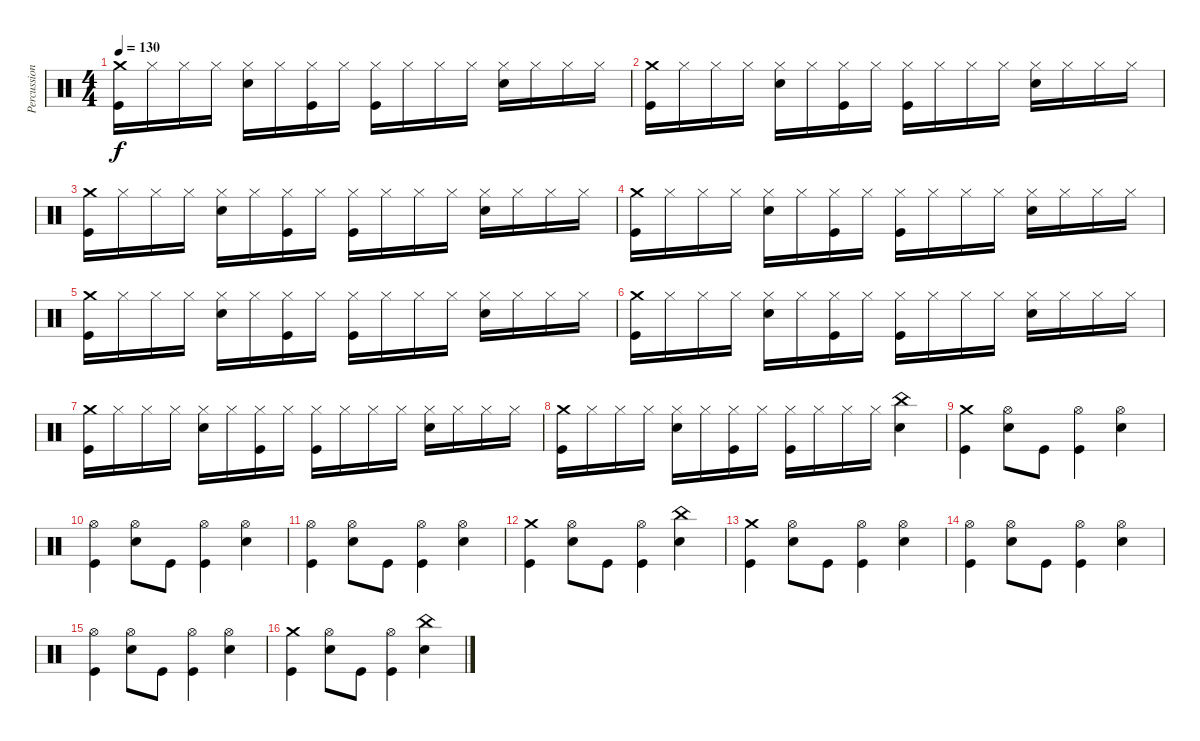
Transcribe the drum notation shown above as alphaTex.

\track ("Percussion" "Percussion") {instrument percussion}
\staff {score}
\articulation defaults
\ts (4 4)
\tempo 130
\clef neutral
\ks c
("Crash medium (hit)" "Kick (hit)").16{dy f} "Hi-Hat (closed)".16 "Hi-Hat (closed)".16 "Hi-Hat (closed)".16 ("Hi-Hat (closed)" "Snare (hit) 2").16 "Hi-Hat (closed)".16 ("Hi-Hat (closed)" "Kick (hit)").16 "Hi-Hat (closed)".16 ("Hi-Hat (closed)" "Kick (hit)").16 "Hi-Hat (closed)".16 "Hi-Hat (closed)".16 "Hi-Hat (closed)".16 ("Hi-Hat (closed)" "Snare (hit) 2").16 "Hi-Hat (closed)".16 "Hi-Hat (closed)".16 "Hi-Hat (closed)".16 |
("Crash medium (hit)" "Kick (hit)").16 "Hi-Hat (closed)".16 "Hi-Hat (closed)".16 "Hi-Hat (closed)".16 ("Hi-Hat (closed)" "Snare (hit) 2").16 "Hi-Hat (closed)".16 ("Hi-Hat (closed)" "Kick (hit)").16 "Hi-Hat (closed)".16 ("Hi-Hat (closed)" "Kick (hit)").16 "Hi-Hat (closed)".16 "Hi-Hat (closed)".16 "Hi-Hat (closed)".16 ("Hi-Hat (closed)" "Snare (hit) 2").16 "Hi-Hat (closed)".16 "Hi-Hat (closed)".16 "Hi-Hat (closed)".16 |
("Crash medium (hit)" "Kick (hit)").16 "Hi-Hat (closed)".16 "Hi-Hat (closed)".16 "Hi-Hat (closed)".16 ("Hi-Hat (closed)" "Snare (hit) 2").16 "Hi-Hat (closed)".16 ("Hi-Hat (closed)" "Kick (hit)").16 "Hi-Hat (closed)".16 ("Hi-Hat (closed)" "Kick (hit)").16 "Hi-Hat (closed)".16 "Hi-Hat (closed)".16 "Hi-Hat (closed)".16 ("Hi-Hat (closed)" "Snare (hit) 2").16 "Hi-Hat (closed)".16 "Hi-Hat (closed)".16 "Hi-Hat (closed)".16 |
("Crash medium (hit)" "Kick (hit)").16 "Hi-Hat (closed)".16 "Hi-Hat (closed)".16 "Hi-Hat (closed)".16 ("Hi-Hat (closed)" "Snare (hit) 2").16 "Hi-Hat (closed)".16 ("Hi-Hat (closed)" "Kick (hit)").16 "Hi-Hat (closed)".16 ("Hi-Hat (closed)" "Kick (hit)").16 "Hi-Hat (closed)".16 "Hi-Hat (closed)".16 "Hi-Hat (closed)".16 ("Hi-Hat (closed)" "Snare (hit) 2").16 "Hi-Hat (closed)".16 "Hi-Hat (closed)".16 "Hi-Hat (closed)".16 |
("Crash medium (hit)" "Kick (hit)").16 "Hi-Hat (closed)".16 "Hi-Hat (closed)".16 "Hi-Hat (closed)".16 ("Hi-Hat (closed)" "Snare (hit) 2").16 "Hi-Hat (closed)".16 ("Hi-Hat (closed)" "Kick (hit)").16 "Hi-Hat (closed)".16 ("Hi-Hat (closed)" "Kick (hit)").16 "Hi-Hat (closed)".16 "Hi-Hat (closed)".16 "Hi-Hat (closed)".16 ("Hi-Hat (closed)" "Snare (hit) 2").16 "Hi-Hat (closed)".16 "Hi-Hat (closed)".16 "Hi-Hat (closed)".16 |
("Crash medium (hit)" "Kick (hit)").16 "Hi-Hat (closed)".16 "Hi-Hat (closed)".16 "Hi-Hat (closed)".16 ("Hi-Hat (closed)" "Snare (hit) 2").16 "Hi-Hat (closed)".16 ("Hi-Hat (closed)" "Kick (hit)").16 "Hi-Hat (closed)".16 ("Hi-Hat (closed)" "Kick (hit)").16 "Hi-Hat (closed)".16 "Hi-Hat (closed)".16 "Hi-Hat (closed)".16 ("Hi-Hat (closed)" "Snare (hit) 2").16 "Hi-Hat (closed)".16 "Hi-Hat (closed)".16 "Hi-Hat (closed)".16 |
("Crash medium (hit)" "Kick (hit)").16 "Hi-Hat (closed)".16 "Hi-Hat (closed)".16 "Hi-Hat (closed)".16 ("Hi-Hat (closed)" "Snare (hit) 2").16 "Hi-Hat (closed)".16 ("Hi-Hat (closed)" "Kick (hit)").16 "Hi-Hat (closed)".16 ("Hi-Hat (closed)" "Kick (hit)").16 "Hi-Hat (closed)".16 "Hi-Hat (closed)".16 "Hi-Hat (closed)".16 ("Hi-Hat (closed)" "Snare (hit) 2").16 "Hi-Hat (closed)".16 "Hi-Hat (closed)".16 "Hi-Hat (closed)".16 |
("Crash medium (hit)" "Kick (hit)").16 "Hi-Hat (closed)".16 "Hi-Hat (closed)".16 "Hi-Hat (closed)".16 ("Hi-Hat (closed)" "Snare (hit) 2").16 "Hi-Hat (closed)".16 ("Hi-Hat (closed)" "Kick (hit)").16 "Hi-Hat (closed)".16 ("Hi-Hat (closed)" "Kick (hit)").16 "Hi-Hat (closed)".16 "Hi-Hat (closed)".16 "Hi-Hat (closed)".16 ("China (hit)" "Snare (hit) 2").4 |
("Crash medium (hit)" "Kick (hit)").4 ("Hi-Hat (open)" "Snare (hit) 2").8 "Kick (hit)".8 ("Hi-Hat (open)" "Kick (hit)").4 ("Hi-Hat (open)" "Snare (hit) 2").4 |
("Hi-Hat (open)" "Kick (hit)").4 ("Hi-Hat (open)" "Snare (hit) 2").8 "Kick (hit)".8 ("Hi-Hat (open)" "Kick (hit)").4 ("Hi-Hat (open)" "Snare (hit) 2").4 |
("Hi-Hat (open)" "Kick (hit)").4 ("Hi-Hat (open)" "Snare (hit) 2").8 "Kick (hit)".8 ("Hi-Hat (open)" "Kick (hit)").4 ("Hi-Hat (open)" "Snare (hit) 2").4 |
("Crash medium (hit)" "Kick (hit)").4 ("Hi-Hat (open)" "Snare (hit) 2").8 "Kick (hit)".8 ("Hi-Hat (open)" "Kick (hit)").4 ("China (hit)" "Snare (hit) 2").4 |
("Crash medium (hit)" "Kick (hit)").4 ("Hi-Hat (open)" "Snare (hit) 2").8 "Kick (hit)".8 ("Hi-Hat (open)" "Kick (hit)").4 ("Hi-Hat (open)" "Snare (hit) 2").4 |
("Hi-Hat (open)" "Kick (hit)").4 ("Hi-Hat (open)" "Snare (hit) 2").8 "Kick (hit)".8 ("Hi-Hat (open)" "Kick (hit)").4 ("Hi-Hat (open)" "Snare (hit) 2").4 |
("Hi-Hat (open)" "Kick (hit)").4 ("Hi-Hat (open)" "Snare (hit) 2").8 "Kick (hit)".8 ("Hi-Hat (open)" "Kick (hit)").4 ("Hi-Hat (open)" "Snare (hit) 2").4 |
("Crash medium (hit)" "Kick (hit)").4 ("Hi-Hat (open)" "Snare (hit) 2").8 "Kick (hit)".8 ("Hi-Hat (open)" "Kick (hit)").4 ("China (hit)" "Snare (hit) 2").4
